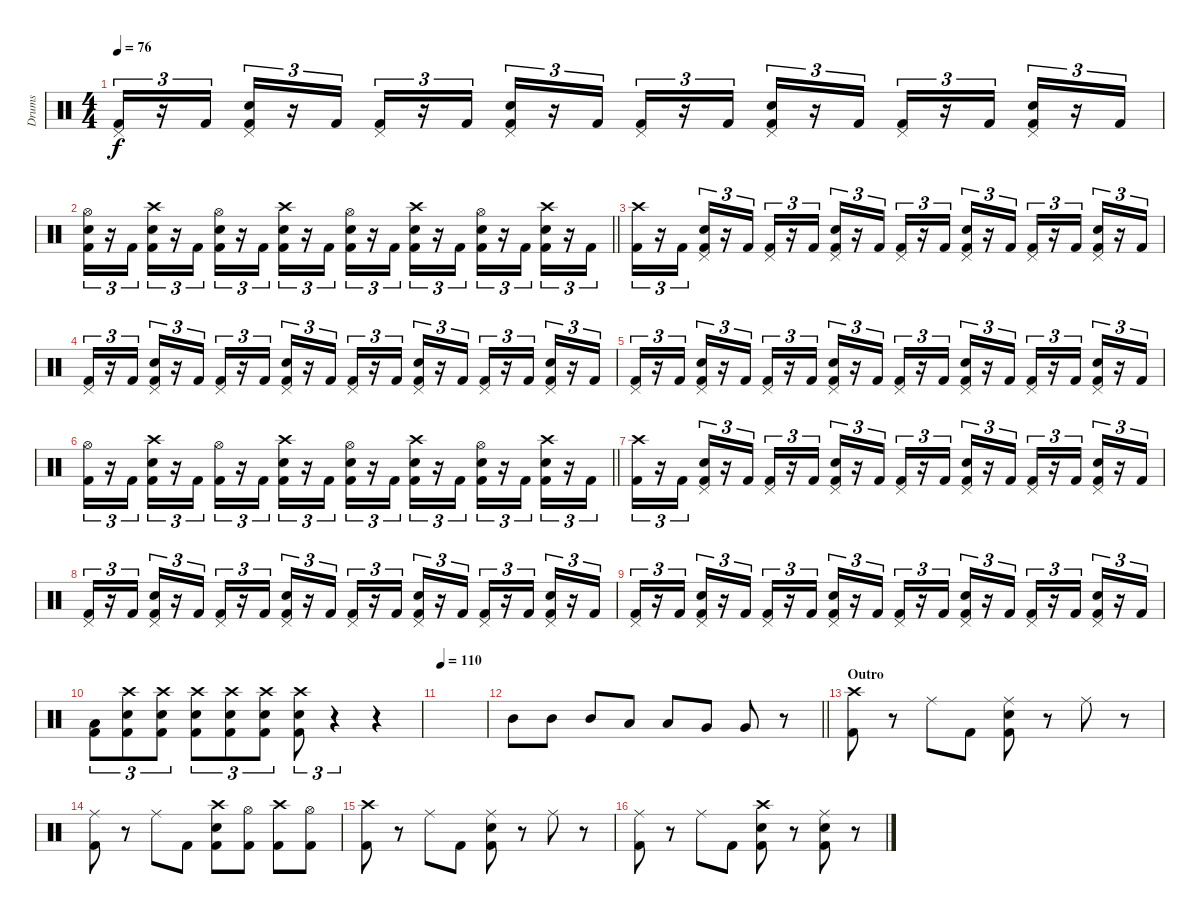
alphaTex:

\track ("Drums" "Drums") {instrument percussion}
\staff {score}
\articulation defaults
\ts (4 4)
\tempo 76
\clef neutral
\ks c
("Pedal Hi-Hat (hit)" "Kick (hit) 2").16{tu (3 2) dy f} r.16{tu (3 2)} "Kick (hit) 2".16{tu (3 2)} ("Pedal Hi-Hat (hit)" "Snare (hit) 2" "Kick (hit) 2").16{tu (3 2)} r.16{tu (3 2)} "Kick (hit) 2".16{tu (3 2)} ("Pedal Hi-Hat (hit)" "Kick (hit) 2").16{tu (3 2)} r.16{tu (3 2)} "Kick (hit) 2".16{tu (3 2)} ("Pedal Hi-Hat (hit)" "Snare (hit) 2" "Kick (hit) 2").16{tu (3 2)} r.16{tu (3 2)} "Kick (hit) 2".16{tu (3 2)} ("Pedal Hi-Hat (hit)" "Kick (hit) 2").16{tu (3 2)} r.16{tu (3 2)} "Kick (hit) 2".16{tu (3 2)} ("Pedal Hi-Hat (hit)" "Snare (hit) 2" "Kick (hit) 2").16{tu (3 2)} r.16{tu (3 2)} "Kick (hit) 2".16{tu (3 2)} ("Pedal Hi-Hat (hit)" "Kick (hit) 2").16{tu (3 2)} r.16{tu (3 2)} "Kick (hit) 2".16{tu (3 2)} ("Pedal Hi-Hat (hit)" "Snare (hit) 2" "Kick (hit) 2").16{tu (3 2)} r.16{tu (3 2)} "Kick (hit) 2".16{tu (3 2)} |
\barLineRight lightlight
("Hi-Hat (open)" "Snare (hit) 2" "Kick (hit) 2").16{tu (3 2)} r.16{tu (3 2)} "Kick (hit) 2".16{tu (3 2)} ("Crash high (hit)" "Snare (hit) 2" "Kick (hit) 2").16{tu (3 2)} r.16{tu (3 2)} "Kick (hit) 2".16{tu (3 2)} ("Hi-Hat (open)" "Snare (hit) 2" "Kick (hit) 2").16{tu (3 2)} r.16{tu (3 2)} "Kick (hit) 2".16{tu (3 2)} ("Crash high (hit)" "Snare (hit) 2" "Kick (hit) 2").16{tu (3 2)} r.16{tu (3 2)} "Kick (hit) 2".16{tu (3 2)} ("Hi-Hat (open)" "Snare (hit) 2" "Kick (hit) 2").16{tu (3 2)} r.16{tu (3 2)} "Kick (hit) 2".16{tu (3 2)} ("Crash high (hit)" "Snare (hit) 2" "Kick (hit) 2").16{tu (3 2)} r.16{tu (3 2)} "Kick (hit) 2".16{tu (3 2)} ("Hi-Hat (open)" "Snare (hit) 2" "Kick (hit) 2").16{tu (3 2)} r.16{tu (3 2)} "Kick (hit) 2".16{tu (3 2)} ("Crash high (hit)" "Snare (hit) 2" "Kick (hit) 2").16{tu (3 2)} r.16{tu (3 2)} "Kick (hit) 2".16{tu (3 2)} |
("Crash high (hit)" "Kick (hit) 2").16{tu (3 2)} r.16{tu (3 2)} "Kick (hit) 2".16{tu (3 2)} ("Pedal Hi-Hat (hit)" "Snare (hit) 2" "Kick (hit) 2").16{tu (3 2)} r.16{tu (3 2)} "Kick (hit) 2".16{tu (3 2)} ("Pedal Hi-Hat (hit)" "Kick (hit) 2").16{tu (3 2)} r.16{tu (3 2)} "Kick (hit) 2".16{tu (3 2)} ("Pedal Hi-Hat (hit)" "Snare (hit) 2" "Kick (hit) 2").16{tu (3 2)} r.16{tu (3 2)} "Kick (hit) 2".16{tu (3 2)} ("Pedal Hi-Hat (hit)" "Kick (hit) 2").16{tu (3 2)} r.16{tu (3 2)} "Kick (hit) 2".16{tu (3 2)} ("Pedal Hi-Hat (hit)" "Snare (hit) 2" "Kick (hit) 2").16{tu (3 2)} r.16{tu (3 2)} "Kick (hit) 2".16{tu (3 2)} ("Pedal Hi-Hat (hit)" "Kick (hit) 2").16{tu (3 2)} r.16{tu (3 2)} "Kick (hit) 2".16{tu (3 2)} ("Pedal Hi-Hat (hit)" "Snare (hit) 2" "Kick (hit) 2").16{tu (3 2)} r.16{tu (3 2)} "Kick (hit) 2".16{tu (3 2)} |
("Pedal Hi-Hat (hit)" "Kick (hit) 2").16{tu (3 2)} r.16{tu (3 2)} "Kick (hit) 2".16{tu (3 2)} ("Pedal Hi-Hat (hit)" "Snare (hit) 2" "Kick (hit) 2").16{tu (3 2)} r.16{tu (3 2)} "Kick (hit) 2".16{tu (3 2)} ("Pedal Hi-Hat (hit)" "Kick (hit) 2").16{tu (3 2)} r.16{tu (3 2)} "Kick (hit) 2".16{tu (3 2)} ("Pedal Hi-Hat (hit)" "Snare (hit) 2" "Kick (hit) 2").16{tu (3 2)} r.16{tu (3 2)} "Kick (hit) 2".16{tu (3 2)} ("Pedal Hi-Hat (hit)" "Kick (hit) 2").16{tu (3 2)} r.16{tu (3 2)} "Kick (hit) 2".16{tu (3 2)} ("Pedal Hi-Hat (hit)" "Snare (hit) 2" "Kick (hit) 2").16{tu (3 2)} r.16{tu (3 2)} "Kick (hit) 2".16{tu (3 2)} ("Pedal Hi-Hat (hit)" "Kick (hit) 2").16{tu (3 2)} r.16{tu (3 2)} "Kick (hit) 2".16{tu (3 2)} ("Pedal Hi-Hat (hit)" "Snare (hit) 2" "Kick (hit) 2").16{tu (3 2)} r.16{tu (3 2)} "Kick (hit) 2".16{tu (3 2)} |
("Pedal Hi-Hat (hit)" "Kick (hit) 2").16{tu (3 2)} r.16{tu (3 2)} "Kick (hit) 2".16{tu (3 2)} ("Pedal Hi-Hat (hit)" "Snare (hit) 2" "Kick (hit) 2").16{tu (3 2)} r.16{tu (3 2)} "Kick (hit) 2".16{tu (3 2)} ("Pedal Hi-Hat (hit)" "Kick (hit) 2").16{tu (3 2)} r.16{tu (3 2)} "Kick (hit) 2".16{tu (3 2)} ("Pedal Hi-Hat (hit)" "Snare (hit) 2" "Kick (hit) 2").16{tu (3 2)} r.16{tu (3 2)} "Kick (hit) 2".16{tu (3 2)} ("Pedal Hi-Hat (hit)" "Kick (hit) 2").16{tu (3 2)} r.16{tu (3 2)} "Kick (hit) 2".16{tu (3 2)} ("Pedal Hi-Hat (hit)" "Snare (hit) 2" "Kick (hit) 2").16{tu (3 2)} r.16{tu (3 2)} "Kick (hit) 2".16{tu (3 2)} ("Pedal Hi-Hat (hit)" "Kick (hit) 2").16{tu (3 2)} r.16{tu (3 2)} "Kick (hit) 2".16{tu (3 2)} ("Pedal Hi-Hat (hit)" "Snare (hit) 2" "Kick (hit) 2").16{tu (3 2)} r.16{tu (3 2)} "Kick (hit) 2".16{tu (3 2)} |
\barLineRight lightlight
("Hi-Hat (open)" "Kick (hit) 2").16{tu (3 2)} r.16{tu (3 2)} "Kick (hit) 2".16{tu (3 2)} ("Crash high (hit)" "Snare (hit) 2" "Kick (hit) 2").16{tu (3 2)} r.16{tu (3 2)} "Kick (hit) 2".16{tu (3 2)} ("Hi-Hat (open)" "Kick (hit) 2").16{tu (3 2)} r.16{tu (3 2)} "Kick (hit) 2".16{tu (3 2)} ("Crash high (hit)" "Snare (hit) 2" "Kick (hit) 2").16{tu (3 2)} r.16{tu (3 2)} "Kick (hit) 2".16{tu (3 2)} ("Hi-Hat (open)" "Snare (hit) 2" "Kick (hit) 2").16{tu (3 2)} r.16{tu (3 2)} "Kick (hit) 2".16{tu (3 2)} ("Crash high (hit)" "Snare (hit) 2" "Kick (hit) 2").16{tu (3 2)} r.16{tu (3 2)} "Kick (hit) 2".16{tu (3 2)} ("Hi-Hat (open)" "Snare (hit) 2" "Kick (hit) 2").16{tu (3 2)} r.16{tu (3 2)} "Kick (hit) 2".16{tu (3 2)} ("Crash high (hit)" "Snare (hit) 2" "Kick (hit) 2").16{tu (3 2)} r.16{tu (3 2)} "Kick (hit) 2".16{tu (3 2)} |
("Crash high (hit)" "Kick (hit) 2").16{tu (3 2)} r.16{tu (3 2)} "Kick (hit) 2".16{tu (3 2)} ("Pedal Hi-Hat (hit)" "Snare (hit) 2" "Kick (hit) 2").16{tu (3 2)} r.16{tu (3 2)} "Kick (hit) 2".16{tu (3 2)} ("Pedal Hi-Hat (hit)" "Kick (hit) 2").16{tu (3 2)} r.16{tu (3 2)} "Kick (hit) 2".16{tu (3 2)} ("Pedal Hi-Hat (hit)" "Snare (hit) 2" "Kick (hit) 2").16{tu (3 2)} r.16{tu (3 2)} "Kick (hit) 2".16{tu (3 2)} ("Pedal Hi-Hat (hit)" "Kick (hit) 2").16{tu (3 2)} r.16{tu (3 2)} "Kick (hit) 2".16{tu (3 2)} ("Pedal Hi-Hat (hit)" "Snare (hit) 2" "Kick (hit) 2").16{tu (3 2)} r.16{tu (3 2)} "Kick (hit) 2".16{tu (3 2)} ("Pedal Hi-Hat (hit)" "Kick (hit) 2").16{tu (3 2)} r.16{tu (3 2)} "Kick (hit) 2".16{tu (3 2)} ("Pedal Hi-Hat (hit)" "Snare (hit) 2" "Kick (hit) 2").16{tu (3 2)} r.16{tu (3 2)} "Kick (hit) 2".16{tu (3 2)} |
("Pedal Hi-Hat (hit)" "Kick (hit) 2").16{tu (3 2)} r.16{tu (3 2)} "Kick (hit) 2".16{tu (3 2)} ("Pedal Hi-Hat (hit)" "Snare (hit) 2" "Kick (hit) 2").16{tu (3 2)} r.16{tu (3 2)} "Kick (hit) 2".16{tu (3 2)} ("Pedal Hi-Hat (hit)" "Kick (hit) 2").16{tu (3 2)} r.16{tu (3 2)} "Kick (hit) 2".16{tu (3 2)} ("Pedal Hi-Hat (hit)" "Snare (hit) 2" "Kick (hit) 2").16{tu (3 2)} r.16{tu (3 2)} "Kick (hit) 2".16{tu (3 2)} ("Pedal Hi-Hat (hit)" "Kick (hit) 2").16{tu (3 2)} r.16{tu (3 2)} "Kick (hit) 2".16{tu (3 2)} ("Pedal Hi-Hat (hit)" "Snare (hit) 2" "Kick (hit) 2").16{tu (3 2)} r.16{tu (3 2)} "Kick (hit) 2".16{tu (3 2)} ("Pedal Hi-Hat (hit)" "Kick (hit) 2").16{tu (3 2)} r.16{tu (3 2)} "Kick (hit) 2".16{tu (3 2)} ("Pedal Hi-Hat (hit)" "Snare (hit) 2" "Kick (hit) 2").16{tu (3 2)} r.16{tu (3 2)} "Kick (hit) 2".16{tu (3 2)} |
("Pedal Hi-Hat (hit)" "Kick (hit) 2").16{tu (3 2)} r.16{tu (3 2)} "Kick (hit) 2".16{tu (3 2)} ("Pedal Hi-Hat (hit)" "Snare (hit) 2" "Kick (hit) 2").16{tu (3 2)} r.16{tu (3 2)} "Kick (hit) 2".16{tu (3 2)} ("Pedal Hi-Hat (hit)" "Kick (hit) 2").16{tu (3 2)} r.16{tu (3 2)} "Kick (hit) 2".16{tu (3 2)} ("Pedal Hi-Hat (hit)" "Snare (hit) 2" "Kick (hit) 2").16{tu (3 2)} r.16{tu (3 2)} "Kick (hit) 2".16{tu (3 2)} ("Pedal Hi-Hat (hit)" "Kick (hit) 2").16{tu (3 2)} r.16{tu (3 2)} "Kick (hit) 2".16{tu (3 2)} ("Pedal Hi-Hat (hit)" "Snare (hit) 2" "Kick (hit) 2").16{tu (3 2)} r.16{tu (3 2)} "Kick (hit) 2".16{tu (3 2)} ("Pedal Hi-Hat (hit)" "Kick (hit) 2").16{tu (3 2)} r.16{tu (3 2)} "Kick (hit) 2".16{tu (3 2)} ("Pedal Hi-Hat (hit)" "Snare (hit) 2" "Kick (hit) 2").16{tu (3 2)} r.16{tu (3 2)} "Kick (hit) 2".16{tu (3 2)} |
("Low Tom (hit)" "Kick (hit) 2").8{tu (3 2)} ("Crash high (hit)" "Snare (hit) 2" "Kick (hit) 2").8{tu (3 2)} ("Crash high (hit)" "Snare (hit) 2" "Kick (hit) 2").8{tu (3 2)} ("Crash high (hit)" "Snare (hit) 2" "Kick (hit) 2").8{tu (3 2)} ("Crash high (hit)" "Snare (hit) 2" "Kick (hit) 2").8{tu (3 2)} ("Crash high (hit)" "Snare (hit) 2" "Kick (hit) 2").8{tu (3 2)} ("Crash high (hit)" "Snare (hit) 2" "Kick (hit) 2").8{tu (3 2)} r.4{tu (3 2)} r.4 |
\tempo 110
|
\barLineRight lightlight "Mid Tom (hit)".8 "Mid Tom (hit)".8 "Mid Tom (hit)".8 "Low Tom (hit)".8 "Low Tom (hit)".8 "Very Low Tom (hit)".8 "Very Low Tom (hit)".8
r.8 |
\section ("" "Outro")
("Crash high (hit)" "Kick (hit) 2").8 r.8 "Ride (middle)".8 "Kick (hit) 2".8 ("Ride (middle)" "Snare (hit) 2" "Kick (hit) 2").8 r.8 "Ride (middle)".8 r.8 |
("Ride (middle)" "Kick (hit) 2").8 r.8 "Ride (middle)".8 "Kick (hit) 2".8 ("Crash high (hit)" "Snare (hit) 2" "Kick (hit) 2").8 ("Hi-Hat (open)" "Kick (hit) 2").8 ("Crash high (hit)" "Kick (hit) 2").8 ("Hi-Hat (open)" "Kick (hit) 2").8 |
("Crash high (hit)" "Kick (hit) 2").8 r.8 "Ride (middle)".8 "Kick (hit) 2".8 ("Ride (middle)" "Snare (hit) 2" "Kick (hit) 2").8 r.8 "Ride (middle)".8 r.8 |
("Ride (middle)" "Kick (hit) 2").8 r.8 "Ride (middle)".8 "Kick (hit) 2".8 ("Crash high (hit)" "Snare (hit) 2" "Kick (hit) 2").8 r.8 ("Ride (middle)" "Snare (hit) 2" "Kick (hit) 2").8 r.8
